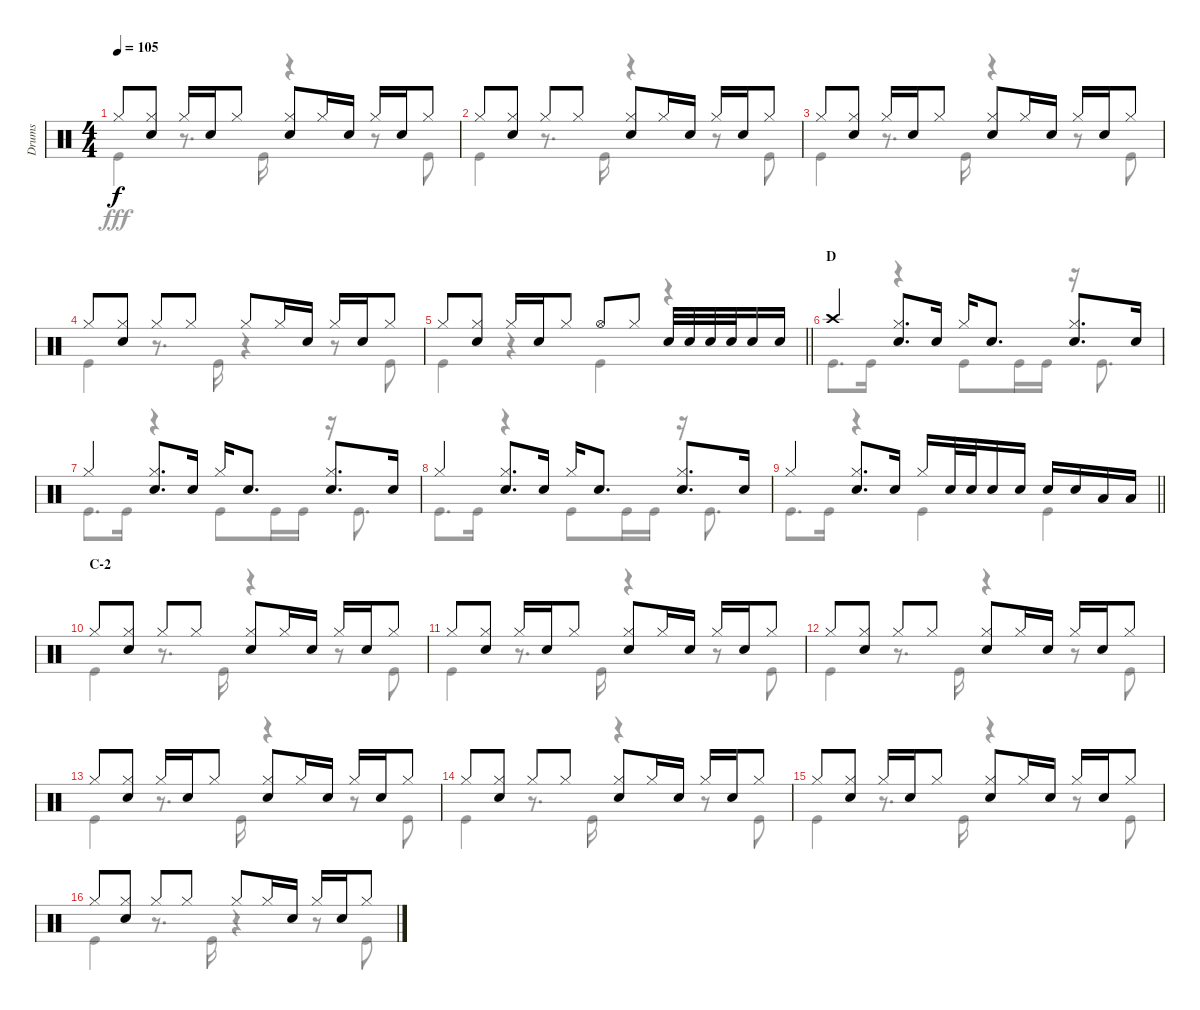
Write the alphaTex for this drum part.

\track ("Drums" "Drums") {instrument percussion}
\staff {score}
\articulation defaults
\voice
\ts (4 4)
\tempo 105
\clef neutral
\ks c "Hi-Hat (closed)".8{dy f}
("Hi-Hat (closed)" "Snare (hit) 2").8 "Hi-Hat (closed)".16 "Snare (hit) 2".16 "Hi-Hat (closed)".8 ("Hi-Hat (closed)" "Snare (hit) 2").8 "Hi-Hat (closed)".16 "Snare (hit) 2".16 "Hi-Hat (closed)".16 "Snare (hit) 2".16 "Hi-Hat (closed)".8 |
"Hi-Hat (closed)".8 ("Hi-Hat (closed)" "Snare (hit) 2").8 "Hi-Hat (closed)".8 "Hi-Hat (closed)".8 ("Hi-Hat (closed)" "Snare (hit) 2").8 "Hi-Hat (closed)".16 "Snare (hit) 2".16 "Hi-Hat (closed)".16 "Snare (hit) 2".16 "Hi-Hat (closed)".8 |
"Hi-Hat (closed)".8 ("Hi-Hat (closed)" "Snare (hit) 2").8 "Hi-Hat (closed)".16 "Snare (hit) 2".16 "Hi-Hat (closed)".8 ("Hi-Hat (closed)" "Snare (hit) 2").8 "Hi-Hat (closed)".16 "Snare (hit) 2".16 "Hi-Hat (closed)".16 "Snare (hit) 2".16 "Hi-Hat (closed)".8 |
"Hi-Hat (closed)".8 ("Hi-Hat (closed)" "Snare (hit) 2").8 "Hi-Hat (closed)".8 "Hi-Hat (closed)".8 "Hi-Hat (closed)".8 "Hi-Hat (closed)".16 "Snare (hit) 2".16 "Hi-Hat (closed)".16 "Snare (hit) 2".16 "Hi-Hat (closed)".8 |
\barLineRight lightlight "Hi-Hat (closed)".8
("Hi-Hat (closed)" "Snare (hit) 2").8 "Hi-Hat (closed)".16 "Snare (hit) 2".16 "Hi-Hat (closed)".8 "Hi-Hat (open)".8 "Hi-Hat (closed)".8 "Snare (hit) 2".32 "Snare (hit) 2".32 "Snare (hit) 2".32 "Snare (hit) 2".32 "Snare (hit) 2".16 "Snare (hit) 2".16 |
\section ("" "D")
"Crash high (hit)".4 ("Hi-Hat (closed)" "Snare (hit) 2").8{d} "Snare (hit) 2".16 "Hi-Hat (closed)".16 "Snare (hit) 2".8{d} ("Hi-Hat (closed)" "Snare (hit) 2").8{d} "Snare (hit) 2".16 |
"Hi-Hat (closed)".4 ("Hi-Hat (closed)" "Snare (hit) 2").8{d} "Snare (hit) 2".16 "Hi-Hat (closed)".16 "Snare (hit) 2".8{d} ("Hi-Hat (closed)" "Snare (hit) 2").8{d} "Snare (hit) 2".16 |
"Hi-Hat (closed)".4 ("Hi-Hat (closed)" "Snare (hit) 2").8{d} "Snare (hit) 2".16 "Hi-Hat (closed)".16 "Snare (hit) 2".8{d} ("Hi-Hat (closed)" "Snare (hit) 2").8{d} "Snare (hit) 2".16 |
\barLineRight lightlight "Hi-Hat (closed)".4
("Hi-Hat (closed)" "Snare (hit) 2").8{d} "Snare (hit) 2".16 "Hi-Hat (closed)".16 "Snare (hit) 2".32 "Snare (hit) 2".32 "Snare (hit) 2".16 "Snare (hit) 2".16 "Snare (hit) 2".16 "Snare (hit) 2".16 "Low Tom (hit)".16 "Low Tom (hit)".16 |
\section ("" "C-2")
"Hi-Hat (closed)".8 ("Hi-Hat (closed)" "Snare (hit) 2").8 "Hi-Hat (closed)".8 "Hi-Hat (closed)".8 ("Hi-Hat (closed)" "Snare (hit) 2").8 "Hi-Hat (closed)".16 "Snare (hit) 2".16 "Hi-Hat (closed)".16 "Snare (hit) 2".16 "Hi-Hat (closed)".8 |
"Hi-Hat (closed)".8 ("Hi-Hat (closed)" "Snare (hit) 2").8 "Hi-Hat (closed)".16 "Snare (hit) 2".16 "Hi-Hat (closed)".8 ("Hi-Hat (closed)" "Snare (hit) 2").8 "Hi-Hat (closed)".16 "Snare (hit) 2".16 "Hi-Hat (closed)".16 "Snare (hit) 2".16 "Hi-Hat (closed)".8 |
"Hi-Hat (closed)".8 ("Hi-Hat (closed)" "Snare (hit) 2").8 "Hi-Hat (closed)".8 "Hi-Hat (closed)".8 ("Hi-Hat (closed)" "Snare (hit) 2").8 "Hi-Hat (closed)".16 "Snare (hit) 2".16 "Hi-Hat (closed)".16 "Snare (hit) 2".16 "Hi-Hat (closed)".8 |
"Hi-Hat (closed)".8 ("Hi-Hat (closed)" "Snare (hit) 2").8 "Hi-Hat (closed)".16 "Snare (hit) 2".16 "Hi-Hat (closed)".8 ("Hi-Hat (closed)" "Snare (hit) 2").8 "Hi-Hat (closed)".16 "Snare (hit) 2".16 "Hi-Hat (closed)".16 "Snare (hit) 2".16 "Hi-Hat (closed)".8 |
"Hi-Hat (closed)".8 ("Hi-Hat (closed)" "Snare (hit) 2").8 "Hi-Hat (closed)".8 "Hi-Hat (closed)".8 ("Hi-Hat (closed)" "Snare (hit) 2").8 "Hi-Hat (closed)".16 "Snare (hit) 2".16 "Hi-Hat (closed)".16 "Snare (hit) 2".16 "Hi-Hat (closed)".8 |
"Hi-Hat (closed)".8 ("Hi-Hat (closed)" "Snare (hit) 2").8 "Hi-Hat (closed)".16 "Snare (hit) 2".16 "Hi-Hat (closed)".8 ("Hi-Hat (closed)" "Snare (hit) 2").8 "Hi-Hat (closed)".16 "Snare (hit) 2".16 "Hi-Hat (closed)".16 "Snare (hit) 2".16 "Hi-Hat (closed)".8 |
"Hi-Hat (closed)".8 ("Hi-Hat (closed)" "Snare (hit) 2").8 "Hi-Hat (closed)".8 "Hi-Hat (closed)".8 "Hi-Hat (closed)".8 "Hi-Hat (closed)".16 "Snare (hit) 2".16 "Hi-Hat (closed)".16 "Snare (hit) 2".16 "Hi-Hat (closed)".8
\voice
\clef neutral
\ottava regular
\simile none
\ks c "Kick (hit)".4{dy fff}
r.8{d} "Kick (hit)".16 r.4 r.8 "Kick (hit)".8 |
"Kick (hit)".4 r.8{d} "Kick (hit)".16 r.4 r.8 "Kick (hit)".8 |
"Kick (hit)".4 r.8{d} "Kick (hit)".16 r.4 r.8 "Kick (hit)".8 |
"Kick (hit)".4 r.8{d} "Kick (hit)".16 r.4 r.8 "Kick (hit)".8 |
\barLineRight lightlight "Kick (hit)".4
r.4 "Kick (hit)".4 r.4 |
"Kick (hit)".8{d} "Kick (hit)".16 r.4 "Kick (hit)".8 "Kick (hit)".16 "Kick (hit)".16 r.16 "Kick (hit)".8{d} |
"Kick (hit)".8{d} "Kick (hit)".16 r.4 "Kick (hit)".8 "Kick (hit)".16 "Kick (hit)".16 r.16 "Kick (hit)".8{d} |
"Kick (hit)".8{d} "Kick (hit)".16 r.4 "Kick (hit)".8 "Kick (hit)".16 "Kick (hit)".16 r.16 "Kick (hit)".8{d} |
\barLineRight lightlight "Kick (hit)".8{d} "Kick (hit)".16
r.4 "Kick (hit)".4 "Kick (hit)".4 |
"Kick (hit)".4 r.8{d} "Kick (hit)".16 r.4 r.8 "Kick (hit)".8 |
"Kick (hit)".4 r.8{d} "Kick (hit)".16 r.4 r.8 "Kick (hit)".8 |
"Kick (hit)".4 r.8{d} "Kick (hit)".16 r.4 r.8 "Kick (hit)".8 |
"Kick (hit)".4 r.8{d} "Kick (hit)".16 r.4 r.8 "Kick (hit)".8 |
"Kick (hit)".4 r.8{d} "Kick (hit)".16 r.4 r.8 "Kick (hit)".8 |
"Kick (hit)".4 r.8{d} "Kick (hit)".16 r.4 r.8 "Kick (hit)".8 |
"Kick (hit)".4 r.8{d} "Kick (hit)".16 r.4 r.8 "Kick (hit)".8
